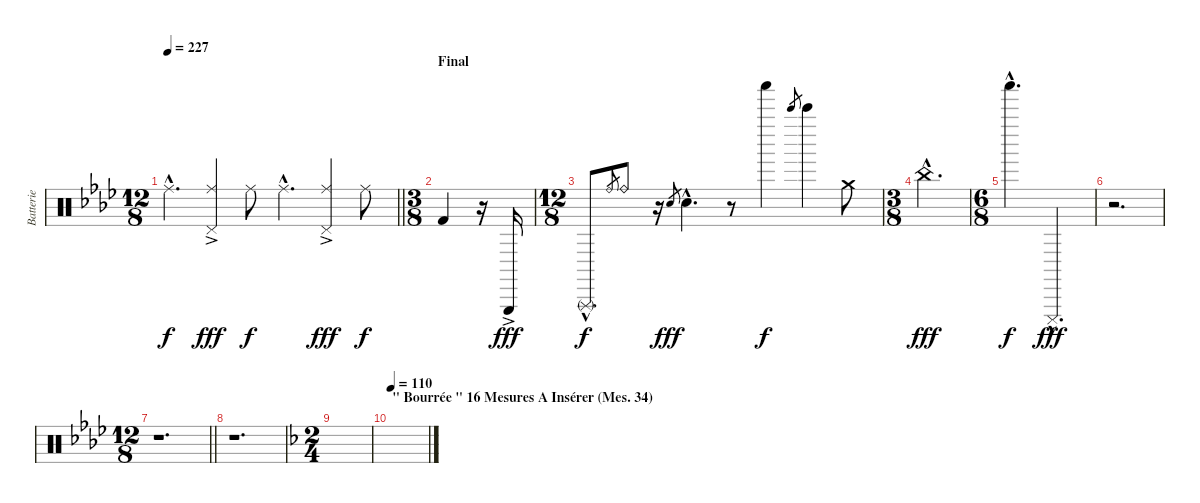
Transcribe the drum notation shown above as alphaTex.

\track ("Batterie" "Batterie") {instrument percussion}
\staff {score}
\articulation defaults
\ts (12 8)
\tempo 227
\clef neutral
\barLineRight lightlight
\ks fminor "Ride (middle)"{hac}.4{d dy f}
("Ride (middle)" "Pedal Hi-Hat (hit)"{ac}).4{dy fff} "Ride (middle)".8{dy f} "Ride (middle)"{hac}.4{d} ("Ride (middle)" "Pedal Hi-Hat (hit)"{ac}).4{dy fff} "Ride (middle)".8{dy f} |
\ts (3 8)
\section ("" "Final")
"Kick (hit) 2".4{volume 12 balance 8} r.16 "Triangle (hit)"{ac}.16{dy fff} |
\ts (12 8)
"Triangle (rnute)"{hac}.8{d dy f} "Ride (bell)".8{gr} "Ride (bell)".8 r.16 "Snare (hit) 2".8{gr dy fff} "Snare (hit) 2"{hac}.4{d} r.8 "Shaker (hit)".4{dy f} "Bell Tree (hit)".8{gr} "Bell Tree (hit)".4 "Crash medium (hit)".8 |
\ts (3 8)
"China (hit)"{hac}.4{d dy fff} |
\ts (6 8)
"Shaker (hit)"{hac}.4{d dy f} "Cuica (mute)"{hac}.4{d dy fff} |
r.2{d} |
\ts (12 8)
\barLineRight lightlight
r.1{d} |
r.1{d} |
\ts (2 4)
\ks dminor
|
\section ("" "\" Bourrée \" 16 Mesures A Insérer (Mes. 34)")
\tempo 110
